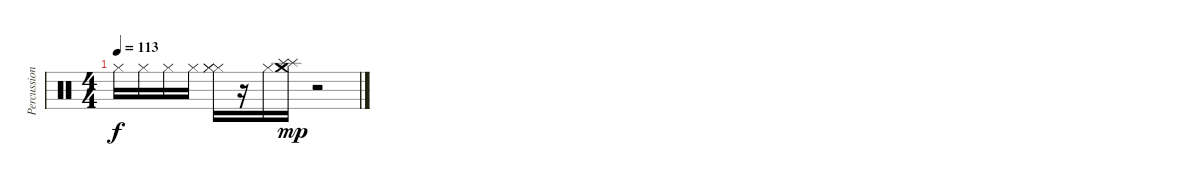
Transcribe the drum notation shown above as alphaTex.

\track ("Percussion" "Percussion") {instrument percussion}
\staff {score}
\articulation defaults
\ts (4 4)
\tempo 113
\clef neutral
\ks c "Hi-Hat (closed)".16{dy f} "Hi-Hat (closed)".16 "Hi-Hat (closed)".16 "Hi-Hat (closed)".16
("Hi-Hat (closed)" "Hi-Hat (closed)" "Hi-Hat (closed)").16 r.16 "Hi-Hat (closed)".16 ("Splash (hit)" "Splash (hit)" "Crash medium (hit)").16{dy mp} r.2
